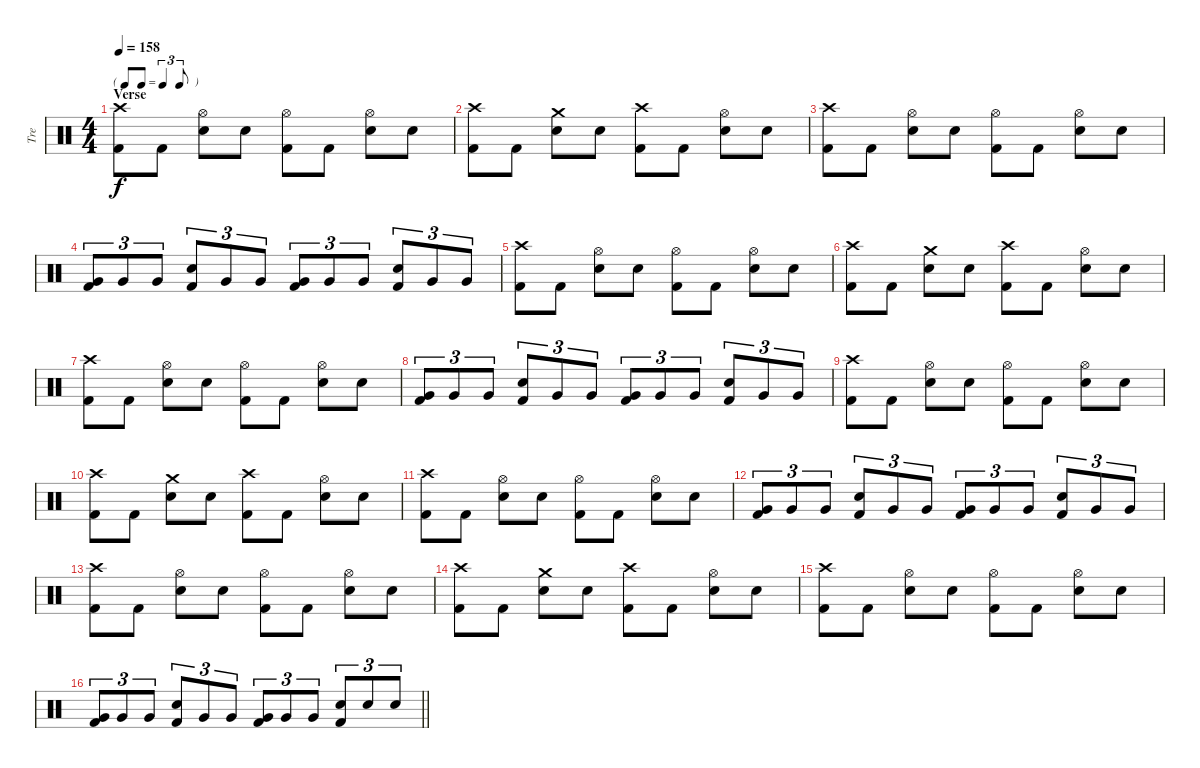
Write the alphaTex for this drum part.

\track ("Tre" "Tre") {instrument percussion}
\staff {score}
\articulation defaults
\ts (4 4)
\tf triplet8th
\section ("" "Verse")
\tempo 158
\clef neutral
\ks c
("Crash high (hit)" "Kick (hit) 2").8{dy f} "Kick (hit) 2".8 ("Hi-Hat (open)" "Snare (hit) 2").8 "Snare (hit) 2".8 ("Hi-Hat (open)" "Kick (hit) 2").8 "Kick (hit) 2".8 ("Hi-Hat (open)" "Snare (hit) 2").8 "Snare (hit) 2".8 |
("Crash high (hit)" "Kick (hit) 2").8 "Kick (hit) 2".8 ("Crash medium (hit)" "Snare (hit) 2").8 "Snare (hit) 2".8 ("Crash high (hit)" "Kick (hit) 2").8 "Kick (hit) 2".8 ("Hi-Hat (open)" "Snare (hit) 2").8 "Snare (hit) 2".8 |
("Crash high (hit)" "Kick (hit) 2").8 "Kick (hit) 2".8 ("Hi-Hat (open)" "Snare (hit) 2").8 "Snare (hit) 2".8 ("Hi-Hat (open)" "Kick (hit) 2").8 "Kick (hit) 2".8 ("Hi-Hat (open)" "Snare (hit) 2").8 "Snare (hit) 2".8 |
("Very Low Tom (hit)" "Kick (hit) 2").8{tu (3 2)} "Very Low Tom (hit)".8{tu (3 2)} "Very Low Tom (hit)".8{tu (3 2)} ("Snare (hit) 2" "Kick (hit) 2").8{tu (3 2)} "Very Low Tom (hit)".8{tu (3 2)} "Very Low Tom (hit)".8{tu (3 2)} ("Very Low Tom (hit)" "Kick (hit) 2").8{tu (3 2)} "Very Low Tom (hit)".8{tu (3 2)} "Very Low Tom (hit)".8{tu (3 2)} ("Snare (hit) 2" "Kick (hit) 2").8{tu (3 2)} "Very Low Tom (hit)".8{tu (3 2)} "Very Low Tom (hit)".8{tu (3 2)} |
("Crash high (hit)" "Kick (hit) 2").8 "Kick (hit) 2".8 ("Hi-Hat (open)" "Snare (hit) 2").8 "Snare (hit) 2".8 ("Hi-Hat (open)" "Kick (hit) 2").8 "Kick (hit) 2".8 ("Hi-Hat (open)" "Snare (hit) 2").8 "Snare (hit) 2".8 |
("Crash high (hit)" "Kick (hit) 2").8 "Kick (hit) 2".8 ("Crash medium (hit)" "Snare (hit) 2").8 "Snare (hit) 2".8 ("Crash high (hit)" "Kick (hit) 2").8 "Kick (hit) 2".8 ("Hi-Hat (open)" "Snare (hit) 2").8 "Snare (hit) 2".8 |
("Crash high (hit)" "Kick (hit) 2").8 "Kick (hit) 2".8 ("Hi-Hat (open)" "Snare (hit) 2").8 "Snare (hit) 2".8 ("Hi-Hat (open)" "Kick (hit) 2").8 "Kick (hit) 2".8 ("Hi-Hat (open)" "Snare (hit) 2").8 "Snare (hit) 2".8 |
("Very Low Tom (hit)" "Kick (hit) 2").8{tu (3 2)} "Very Low Tom (hit)".8{tu (3 2)} "Very Low Tom (hit)".8{tu (3 2)} ("Snare (hit) 2" "Kick (hit) 2").8{tu (3 2)} "Very Low Tom (hit)".8{tu (3 2)} "Very Low Tom (hit)".8{tu (3 2)} ("Very Low Tom (hit)" "Kick (hit) 2").8{tu (3 2)} "Very Low Tom (hit)".8{tu (3 2)} "Very Low Tom (hit)".8{tu (3 2)} ("Snare (hit) 2" "Kick (hit) 2").8{tu (3 2)} "Very Low Tom (hit)".8{tu (3 2)} "Very Low Tom (hit)".8{tu (3 2)} |
("Crash high (hit)" "Kick (hit) 2").8 "Kick (hit) 2".8 ("Hi-Hat (open)" "Snare (hit) 2").8 "Snare (hit) 2".8 ("Hi-Hat (open)" "Kick (hit) 2").8 "Kick (hit) 2".8 ("Hi-Hat (open)" "Snare (hit) 2").8 "Snare (hit) 2".8 |
("Crash high (hit)" "Kick (hit) 2").8 "Kick (hit) 2".8 ("Crash medium (hit)" "Snare (hit) 2").8 "Snare (hit) 2".8 ("Crash high (hit)" "Kick (hit) 2").8 "Kick (hit) 2".8 ("Hi-Hat (open)" "Snare (hit) 2").8 "Snare (hit) 2".8 |
("Crash high (hit)" "Kick (hit) 2").8 "Kick (hit) 2".8 ("Hi-Hat (open)" "Snare (hit) 2").8 "Snare (hit) 2".8 ("Hi-Hat (open)" "Kick (hit) 2").8 "Kick (hit) 2".8 ("Hi-Hat (open)" "Snare (hit) 2").8 "Snare (hit) 2".8 |
("Very Low Tom (hit)" "Kick (hit) 2").8{tu (3 2)} "Very Low Tom (hit)".8{tu (3 2)} "Very Low Tom (hit)".8{tu (3 2)} ("Snare (hit) 2" "Kick (hit) 2").8{tu (3 2)} "Very Low Tom (hit)".8{tu (3 2)} "Very Low Tom (hit)".8{tu (3 2)} ("Very Low Tom (hit)" "Kick (hit) 2").8{tu (3 2)} "Very Low Tom (hit)".8{tu (3 2)} "Very Low Tom (hit)".8{tu (3 2)} ("Snare (hit) 2" "Kick (hit) 2").8{tu (3 2)} "Very Low Tom (hit)".8{tu (3 2)} "Very Low Tom (hit)".8{tu (3 2)} |
("Crash high (hit)" "Kick (hit) 2").8 "Kick (hit) 2".8 ("Hi-Hat (open)" "Snare (hit) 2").8 "Snare (hit) 2".8 ("Hi-Hat (open)" "Kick (hit) 2").8 "Kick (hit) 2".8 ("Hi-Hat (open)" "Snare (hit) 2").8 "Snare (hit) 2".8 |
("Crash high (hit)" "Kick (hit) 2").8 "Kick (hit) 2".8 ("Crash medium (hit)" "Snare (hit) 2").8 "Snare (hit) 2".8 ("Crash high (hit)" "Kick (hit) 2").8 "Kick (hit) 2".8 ("Hi-Hat (open)" "Snare (hit) 2").8 "Snare (hit) 2".8 |
("Crash high (hit)" "Kick (hit) 2").8 "Kick (hit) 2".8 ("Hi-Hat (open)" "Snare (hit) 2").8 "Snare (hit) 2".8 ("Hi-Hat (open)" "Kick (hit) 2").8 "Kick (hit) 2".8 ("Hi-Hat (open)" "Snare (hit) 2").8 "Snare (hit) 2".8 |
\barLineRight lightlight
("Very Low Tom (hit)" "Kick (hit) 2").8{tu (3 2)} "Very Low Tom (hit)".8{tu (3 2)} "Very Low Tom (hit)".8{tu (3 2)} ("Snare (hit) 2" "Kick (hit) 2").8{tu (3 2)} "Very Low Tom (hit)".8{tu (3 2)} "Very Low Tom (hit)".8{tu (3 2)} ("Very Low Tom (hit)" "Kick (hit) 2").8{tu (3 2)} "Very Low Tom (hit)".8{tu (3 2)} "Very Low Tom (hit)".8{tu (3 2)} ("Snare (hit) 2" "Kick (hit) 2").8{tu (3 2)} "Snare (hit) 2".8{tu (3 2)} "Snare (hit) 2".8{tu (3 2)}
